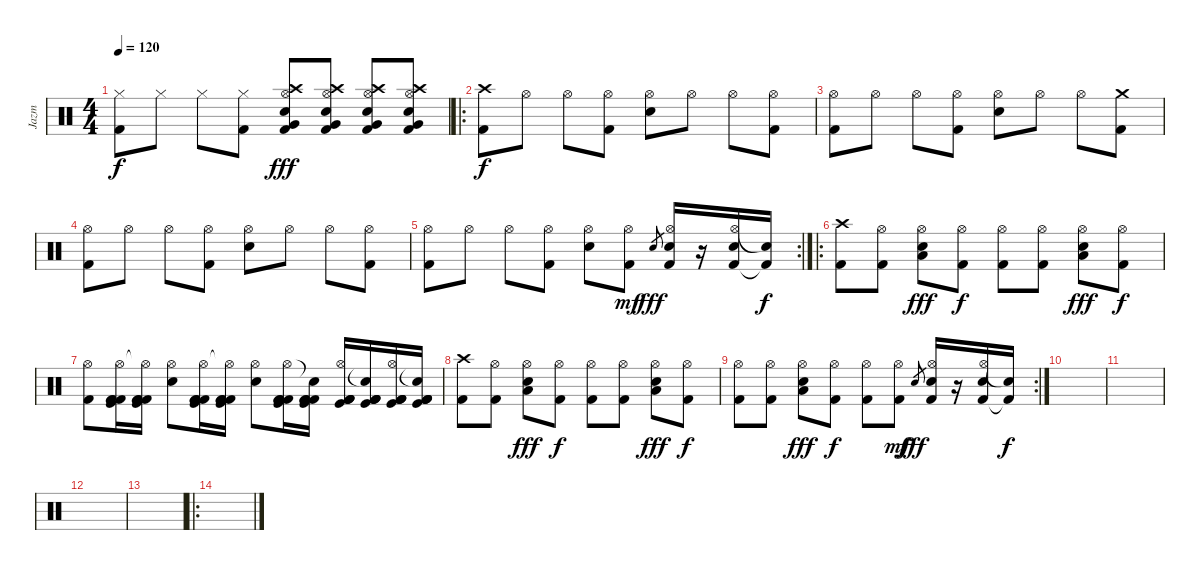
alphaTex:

\track ("Jazm" "Jazm") {instrument percussion}
\staff {score}
\articulation defaults
\ts (4 4)
\tempo 120
\clef neutral
\ks c
("Hi-Hat (closed)" "Kick (hit) 2").8{dy f} "Hi-Hat (closed)".8 "Hi-Hat (closed)".8 ("Hi-Hat (closed)" "Kick (hit) 2").8 ("Crash high (hit)" "Hi-Hat (open)" "Very Low Tom (hit)" "Kick (hit) 2" "Electric Snare (hit)").8{dy fff} ("Crash high (hit)" "Hi-Hat (open)" "Very Low Tom (hit)" "Kick (hit) 2" "Electric Snare (hit)").8 ("Crash high (hit)" "Hi-Hat (open)" "Very Low Tom (hit)" "Kick (hit) 2" "Electric Snare (hit)").8 ("Crash high (hit)" "Hi-Hat (open)" "Very Low Tom (hit)" "Kick (hit) 2" "Electric Snare (hit)").8 |
\ro
("Crash high (hit)" "Kick (hit) 2").8{dy f} "Hi-Hat (open)".8 "Hi-Hat (open)".8 ("Hi-Hat (open)" "Kick (hit) 2").8 ("Hi-Hat (open)" "Electric Snare (hit)").8 "Hi-Hat (open)".8 "Hi-Hat (open)".8 ("Hi-Hat (open)" "Kick (hit) 2").8 |
("Hi-Hat (open)" "Kick (hit) 2").8 "Hi-Hat (open)".8 "Hi-Hat (open)".8 ("Hi-Hat (open)" "Kick (hit) 2").8 ("Hi-Hat (open)" "Electric Snare (hit)").8 "Hi-Hat (open)".8 "Hi-Hat (open)".8 ("Crash medium (hit)" "Kick (hit) 2").8 |
("Hi-Hat (open)" "Kick (hit) 2").8 "Hi-Hat (open)".8 "Hi-Hat (open)".8 ("Hi-Hat (open)" "Kick (hit) 2").8 ("Hi-Hat (open)" "Electric Snare (hit)").8 "Hi-Hat (open)".8 "Hi-Hat (open)".8 ("Hi-Hat (open)" "Kick (hit) 2").8 |
\rc 2
("Hi-Hat (open)" "Kick (hit) 2").8 "Hi-Hat (open)".8 "Hi-Hat (open)".8 ("Hi-Hat (open)" "Kick (hit) 2").8 ("Hi-Hat (open)" "Electric Snare (hit)").8 ("Hi-Hat (open)" "Kick (hit) 2").8{dy mf} "Electric Snare (hit)".8{gr dy fff} ("Hi-Hat (open)" "Kick (hit) 2" "Electric Snare (hit)").16 r.16 ("Hi-Hat (open)" "Kick (hit) 2" "Electric Snare (hit)").16 ("Snare (hit)"{t} "Kick (hit) 2"{t}).16{dy f} |
\ro
("Crash high (hit)" "Kick (hit) 2").8 ("Hi-Hat (open)" "Kick (hit) 2").8 ("Hi-Hat (open)" "Low Floor Tom (hit)" "Electric Snare (hit)").8{dy fff} ("Hi-Hat (open)" "Kick (hit) 2").8{dy f} ("Hi-Hat (open)" "Kick (hit) 2").8 ("Hi-Hat (open)" "Kick (hit) 2").8 ("Hi-Hat (open)" "Low Floor Tom (hit)" "Electric Snare (hit)").8{dy fff} ("Hi-Hat (open)" "Kick (hit) 2").8{dy f} |
("Hi-Hat (open)" "Kick (hit) 2").8 ("Hi-Hat (open)" "Kick (hit)" "Kick (hit) 2" "Kick (hit) 2" "Kick (hit) 2").16 ("Hi-Hat (open)"{t} "Kick (hit)" "Kick (hit) 2" "Kick (hit) 2" "Kick (hit) 2").16 ("Hi-Hat (open)" "Electric Snare (hit)").8 ("Hi-Hat (open)" "Kick (hit)" "Kick (hit) 2" "Kick (hit) 2" "Kick (hit) 2").16 ("Hi-Hat (open)"{t} "Kick (hit)" "Kick (hit) 2" "Kick (hit) 2" "Kick (hit) 2").16 ("Hi-Hat (open)" "Electric Snare (hit)").8 ("Hi-Hat (open)" "Kick (hit)" "Kick (hit) 2" "Kick (hit) 2" "Kick (hit) 2").16 ("Snare (hit)"{t} "Kick (hit)" "Kick (hit) 2" "Kick (hit) 2" "Kick (hit) 2").16 ("Hi-Hat (open)" "Kick (hit)" "Kick (hit) 2" "Kick (hit) 2" "Kick (hit) 2").16 ("Snare (hit)"{t} "Kick (hit)" "Kick (hit) 2" "Kick (hit) 2" "Kick (hit) 2").16 ("Hi-Hat (open)" "Kick (hit)" "Kick (hit) 2" "Kick (hit) 2" "Kick (hit) 2").16 ("Snare (hit)"{t} "Kick (hit)" "Kick (hit) 2" "Kick (hit) 2" "Kick (hit) 2").16 |
("Crash high (hit)" "Kick (hit) 2").8 ("Hi-Hat (open)" "Kick (hit) 2").8 ("Hi-Hat (open)" "Low Floor Tom (hit)" "Electric Snare (hit)").8{dy fff} ("Hi-Hat (open)" "Kick (hit) 2").8{dy f} ("Hi-Hat (open)" "Kick (hit) 2").8 ("Hi-Hat (open)" "Kick (hit) 2").8 ("Hi-Hat (open)" "Low Floor Tom (hit)" "Electric Snare (hit)").8{dy fff} ("Hi-Hat (open)" "Kick (hit) 2").8{dy f} |
\rc 2
("Hi-Hat (open)" "Kick (hit) 2").8 ("Hi-Hat (open)" "Kick (hit) 2").8 ("Hi-Hat (open)" "Low Floor Tom (hit)" "Electric Snare (hit)").8{dy fff} ("Hi-Hat (open)" "Kick (hit) 2").8{dy f} ("Hi-Hat (open)" "Kick (hit) 2").8 ("Hi-Hat (open)" "Kick (hit) 2").8{dy mf} "Electric Snare (hit)".8{gr dy fff} ("Hi-Hat (open)" "Kick (hit) 2" "Electric Snare (hit)").16 r.16 ("Hi-Hat (open)" "Kick (hit) 2" "Electric Snare (hit)").16 ("Snare (hit)"{t} "Kick (hit) 2"{t}).16{dy f} |
|
|
|
|
\ro
